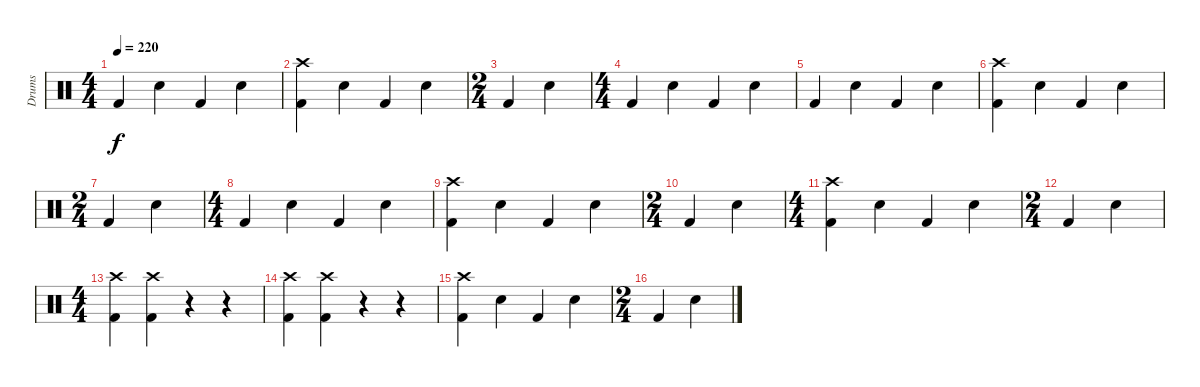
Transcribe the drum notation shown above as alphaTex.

\track ("Drums" "Drums") {instrument percussion}
\staff {score}
\articulation defaults
\ts (4 4)
\tempo 220
\clef neutral
\ks c "Kick (hit) 2".4{dy f} "Electric Snare (hit)".4 "Kick (hit) 2".4 "Electric Snare (hit)".4
|
("Crash high (hit)" "Kick (hit) 2").4 "Electric Snare (hit)".4 "Kick (hit) 2".4 "Electric Snare (hit)".4 |
\ts (2 4)
"Kick (hit) 2".4 "Electric Snare (hit)".4 |
\ts (4 4)
"Kick (hit) 2".4 "Electric Snare (hit)".4 "Kick (hit) 2".4 "Electric Snare (hit)".4 |
"Kick (hit) 2".4 "Electric Snare (hit)".4 "Kick (hit) 2".4 "Electric Snare (hit)".4 |
("Crash high (hit)" "Kick (hit) 2").4 "Electric Snare (hit)".4 "Kick (hit) 2".4 "Electric Snare (hit)".4 |
\ts (2 4)
"Kick (hit) 2".4 "Electric Snare (hit)".4 |
\ts (4 4)
"Kick (hit) 2".4 "Electric Snare (hit)".4 "Kick (hit) 2".4 "Electric Snare (hit)".4 |
("Kick (hit) 2" "Crash high (hit)").4 "Electric Snare (hit)".4 "Kick (hit) 2".4 "Electric Snare (hit)".4 |
\ts (2 4)
"Kick (hit) 2".4 "Electric Snare (hit)".4 |
\ts (4 4)
("Crash high (hit)" "Kick (hit) 2").4 "Electric Snare (hit)".4 "Kick (hit) 2".4 "Electric Snare (hit)".4 |
\ts (2 4)
"Kick (hit) 2".4 "Electric Snare (hit)".4 |
\ts (4 4)
("Crash high (hit)" "Kick (hit) 2").4 ("Kick (hit) 2" "Crash high (hit)").4 r.4 r.4 |
("Kick (hit) 2" "Crash high (hit)").4 ("Crash high (hit)" "Kick (hit) 2").4 r.4 r.4 |
("Crash high (hit)" "Kick (hit) 2").4 "Electric Snare (hit)".4 "Kick (hit) 2".4 "Electric Snare (hit)".4 |
\ts (2 4)
"Kick (hit) 2".4 "Electric Snare (hit)".4
